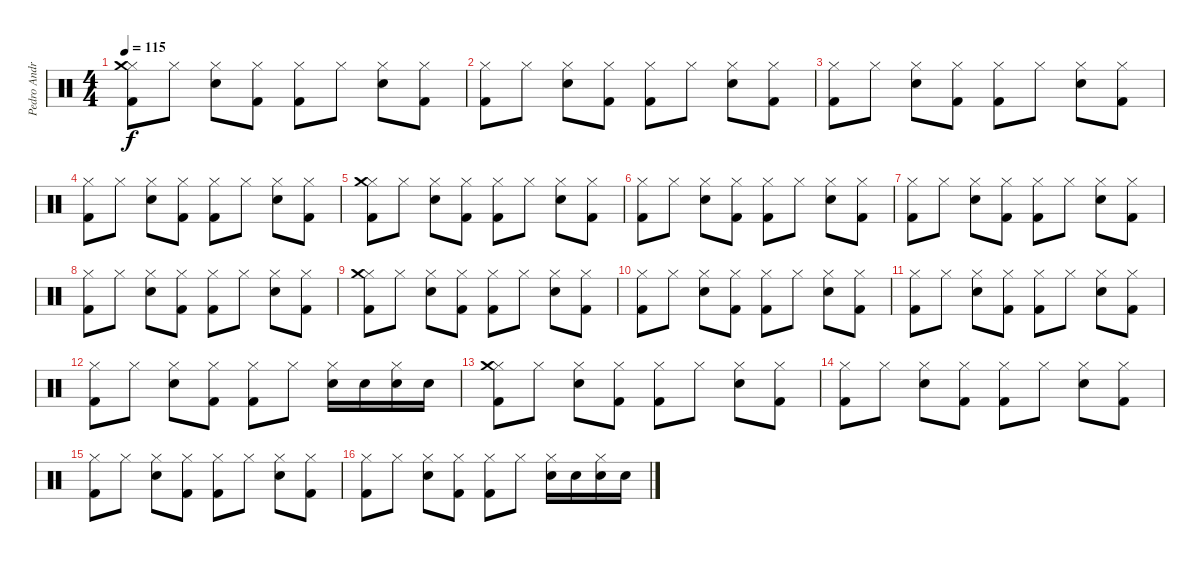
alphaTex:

\track ("Pedro Andreu" "Pedro Andr") {instrument percussion}
\staff {score}
\articulation defaults
\ts (4 4)
\tempo 115
\clef neutral
\ks c
("Hi-Hat (closed)" "Crash medium (hit)" "Kick (hit) 2").8{dy f} "Hi-Hat (closed)".8 ("Hi-Hat (closed)" "Snare (hit) 2").8 ("Hi-Hat (closed)" "Kick (hit) 2").8 ("Hi-Hat (closed)" "Kick (hit) 2").8 "Hi-Hat (closed)".8 ("Hi-Hat (closed)" "Snare (hit) 2").8 ("Hi-Hat (closed)" "Kick (hit) 2").8 |
("Hi-Hat (closed)" "Kick (hit) 2").8 "Hi-Hat (closed)".8 ("Hi-Hat (closed)" "Snare (hit) 2").8 ("Hi-Hat (closed)" "Kick (hit) 2").8 ("Hi-Hat (closed)" "Kick (hit) 2").8 "Hi-Hat (closed)".8 ("Hi-Hat (closed)" "Snare (hit) 2").8 ("Hi-Hat (closed)" "Kick (hit) 2").8 |
("Hi-Hat (closed)" "Kick (hit) 2").8 "Hi-Hat (closed)".8 ("Hi-Hat (closed)" "Snare (hit) 2").8 ("Hi-Hat (closed)" "Kick (hit) 2").8 ("Hi-Hat (closed)" "Kick (hit) 2").8 "Hi-Hat (closed)".8 ("Hi-Hat (closed)" "Snare (hit) 2").8 ("Hi-Hat (closed)" "Kick (hit) 2").8 |
("Hi-Hat (closed)" "Kick (hit) 2").8 "Hi-Hat (closed)".8 ("Hi-Hat (closed)" "Snare (hit) 2").8 ("Hi-Hat (closed)" "Kick (hit) 2").8 ("Hi-Hat (closed)" "Kick (hit) 2").8 "Hi-Hat (closed)".8 ("Hi-Hat (closed)" "Snare (hit) 2").8 ("Hi-Hat (closed)" "Kick (hit) 2").8 |
("Hi-Hat (closed)" "Crash medium (hit)" "Kick (hit) 2").8 "Hi-Hat (closed)".8 ("Hi-Hat (closed)" "Snare (hit) 2").8 ("Hi-Hat (closed)" "Kick (hit) 2").8 ("Hi-Hat (closed)" "Kick (hit) 2").8 "Hi-Hat (closed)".8 ("Hi-Hat (closed)" "Snare (hit) 2").8 ("Hi-Hat (closed)" "Kick (hit) 2").8 |
("Hi-Hat (closed)" "Kick (hit) 2").8 "Hi-Hat (closed)".8 ("Hi-Hat (closed)" "Snare (hit) 2").8 ("Hi-Hat (closed)" "Kick (hit) 2").8 ("Hi-Hat (closed)" "Kick (hit) 2").8 "Hi-Hat (closed)".8 ("Hi-Hat (closed)" "Snare (hit) 2").8 ("Hi-Hat (closed)" "Kick (hit) 2").8 |
("Hi-Hat (closed)" "Kick (hit) 2").8 "Hi-Hat (closed)".8 ("Hi-Hat (closed)" "Snare (hit) 2").8 ("Hi-Hat (closed)" "Kick (hit) 2").8 ("Hi-Hat (closed)" "Kick (hit) 2").8 "Hi-Hat (closed)".8 ("Hi-Hat (closed)" "Snare (hit) 2").8 ("Hi-Hat (closed)" "Kick (hit) 2").8 |
("Hi-Hat (closed)" "Kick (hit) 2").8 "Hi-Hat (closed)".8 ("Hi-Hat (closed)" "Snare (hit) 2").8 ("Hi-Hat (closed)" "Kick (hit) 2").8 ("Hi-Hat (closed)" "Kick (hit) 2").8 "Hi-Hat (closed)".8 ("Hi-Hat (closed)" "Snare (hit) 2").8 ("Hi-Hat (closed)" "Kick (hit) 2").8 |
("Hi-Hat (closed)" "Crash medium (hit)" "Kick (hit) 2").8 "Hi-Hat (closed)".8 ("Hi-Hat (closed)" "Snare (hit) 2").8 ("Hi-Hat (closed)" "Kick (hit) 2").8 ("Hi-Hat (closed)" "Kick (hit) 2").8 "Hi-Hat (closed)".8 ("Hi-Hat (closed)" "Snare (hit) 2").8 ("Hi-Hat (closed)" "Kick (hit) 2").8 |
("Hi-Hat (closed)" "Kick (hit) 2").8 "Hi-Hat (closed)".8 ("Hi-Hat (closed)" "Snare (hit) 2").8 ("Hi-Hat (closed)" "Kick (hit) 2").8 ("Hi-Hat (closed)" "Kick (hit) 2").8 "Hi-Hat (closed)".8 ("Hi-Hat (closed)" "Snare (hit) 2").8 ("Hi-Hat (closed)" "Kick (hit) 2").8 |
("Hi-Hat (closed)" "Kick (hit) 2").8 "Hi-Hat (closed)".8 ("Hi-Hat (closed)" "Snare (hit) 2").8 ("Hi-Hat (closed)" "Kick (hit) 2").8 ("Hi-Hat (closed)" "Kick (hit) 2").8 "Hi-Hat (closed)".8 ("Hi-Hat (closed)" "Snare (hit) 2").8 ("Hi-Hat (closed)" "Kick (hit) 2").8 |
("Hi-Hat (closed)" "Kick (hit) 2").8 "Hi-Hat (closed)".8 ("Hi-Hat (closed)" "Snare (hit) 2").8 ("Hi-Hat (closed)" "Kick (hit) 2").8 ("Hi-Hat (closed)" "Kick (hit) 2").8 "Hi-Hat (closed)".8 ("Snare (hit) 2" "Hi-Hat (closed)").16 "Snare (hit) 2".16 ("Snare (hit) 2" "Hi-Hat (closed)").16 "Snare (hit) 2".16 |
("Hi-Hat (closed)" "Crash medium (hit)" "Kick (hit) 2").8 "Hi-Hat (closed)".8 ("Hi-Hat (closed)" "Snare (hit) 2").8 ("Hi-Hat (closed)" "Kick (hit) 2").8 ("Hi-Hat (closed)" "Kick (hit) 2").8 "Hi-Hat (closed)".8 ("Hi-Hat (closed)" "Snare (hit) 2").8 ("Hi-Hat (closed)" "Kick (hit) 2").8 |
("Hi-Hat (closed)" "Kick (hit) 2").8 "Hi-Hat (closed)".8 ("Hi-Hat (closed)" "Snare (hit) 2").8 ("Hi-Hat (closed)" "Kick (hit) 2").8 ("Hi-Hat (closed)" "Kick (hit) 2").8 "Hi-Hat (closed)".8 ("Hi-Hat (closed)" "Snare (hit) 2").8 ("Hi-Hat (closed)" "Kick (hit) 2").8 |
("Hi-Hat (closed)" "Kick (hit) 2").8 "Hi-Hat (closed)".8 ("Hi-Hat (closed)" "Snare (hit) 2").8 ("Hi-Hat (closed)" "Kick (hit) 2").8 ("Hi-Hat (closed)" "Kick (hit) 2").8 "Hi-Hat (closed)".8 ("Hi-Hat (closed)" "Snare (hit) 2").8 ("Hi-Hat (closed)" "Kick (hit) 2").8 |
("Hi-Hat (closed)" "Kick (hit) 2").8 "Hi-Hat (closed)".8 ("Hi-Hat (closed)" "Snare (hit) 2").8 ("Hi-Hat (closed)" "Kick (hit) 2").8 ("Hi-Hat (closed)" "Kick (hit) 2").8 "Hi-Hat (closed)".8 ("Snare (hit) 2" "Hi-Hat (closed)").16 "Snare (hit) 2".16 ("Snare (hit) 2" "Hi-Hat (closed)").16 "Snare (hit) 2".16
